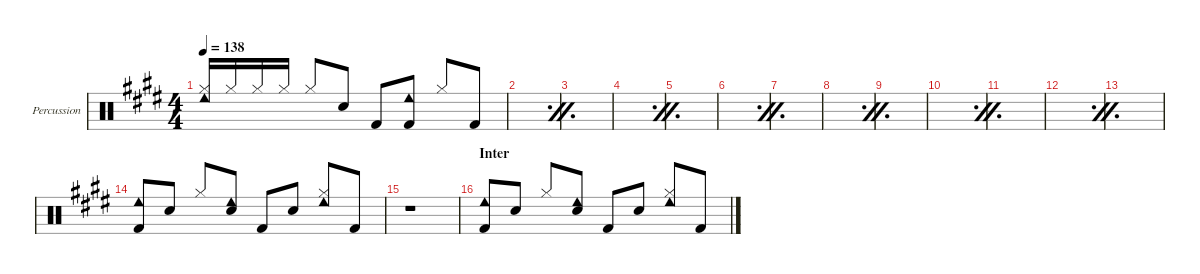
\defaultSystemsLayout 4
\hideDynamics
\bracketExtendMode nobrackets
\firstSystemTrackNameOrientation horizontal
\track ("Percussion" "Percussion") {defaultSystemsLayout 4 mute instrument percussion}
\staff {score}
\articulation defaults
\ts (4 4)
\tempo 138
\clef neutral
\scale
0.244461
\ks c#minor
("Hi-Hat (closed)"{acc forcenatural} "Cowbell low (hit)"{acc forcenatural}).16{dy f beam Up} "Hi-Hat (closed)"{acc forcenatural}.16{beam Up} "Hi-Hat (closed)"{acc forcenatural}.16{beam Up} "Hi-Hat (closed)"{acc forcenatural}.16{beam Up beam split} "Hi-Hat (closed)"{acc forcenatural}.8{beam Up} "Snare (hit) 2"{acc forcenatural}.8{beam Up} "Kick (hit) 2"{acc forcenatural}.8{beam Up} ("Kick (hit) 2"{acc forcenatural} "Cowbell low (hit)"{acc forcenatural}).8{beam Up} "Hi-Hat (closed)"{acc forcenatural}.8{beam Up} "Kick (hit) 2"{acc forcenatural}.8{beam Up} |
\simile firstofdouble
\scale
0.244461 |
\simile secondofdouble
\scale
0.24446 |
\simile firstofdouble
\scale
0.266618 |
\simile secondofdouble
\scale
0.244461 |
\simile firstofdouble
\scale
0.24446 |
\simile secondofdouble
\scale
0.244461 |
\simile firstofdouble
\scale
0.266618 |
\simile secondofdouble
\scale
0.244461 |
\simile firstofdouble
\scale
0.24446 |
\simile secondofdouble
\scale
0.244461 |
\simile firstofdouble
\scale
0.26603 |
\simile secondofdouble
\scale
0.243921 |
\simile none
\scale
0.243921 ("Kick (hit) 2"{acc forcenatural} "Cowbell low (hit)"{acc forcenatural}).8{beam Up} "Snare (hit) 2"{acc forcenatural}.8{beam Up} "Hi-Hat (closed)"{acc forcenatural}.8{beam Up} ("Snare (hit) 2"{acc forcenatural} "Cowbell low (hit)"{acc forcenatural}).8{beam Up} "Kick (hit) 2"{acc forcenatural}.8{beam Up} "Snare (hit) 2"{acc forcenatural}.8{beam Up} ("Hi-Hat (closed)"{acc forcenatural} "Cowbell low (hit)"{acc forcenatural}).8{beam Up} "Kick (hit) 2"{acc forcenatural}.8{beam Up} |
\scale
0.246127 r.1{beam Down} |
\section ("" "Inter")
\scale
0.267209 ("Kick (hit) 2"{acc forcenatural} "Cowbell low (hit)"{acc forcenatural}).8{beam Up} "Snare (hit) 2"{acc forcenatural}.8{beam Up} "Hi-Hat (closed)"{acc forcenatural}.8{beam Up} ("Snare (hit) 2"{acc forcenatural} "Cowbell low (hit)"{acc forcenatural}).8{beam Up} "Kick (hit) 2"{acc forcenatural}.8{beam Up} "Snare (hit) 2"{acc forcenatural}.8{beam Up} ("Hi-Hat (closed)"{acc forcenatural} "Cowbell low (hit)"{acc forcenatural}).8{beam Up} "Kick (hit) 2"{acc forcenatural}.8{beam Up}
